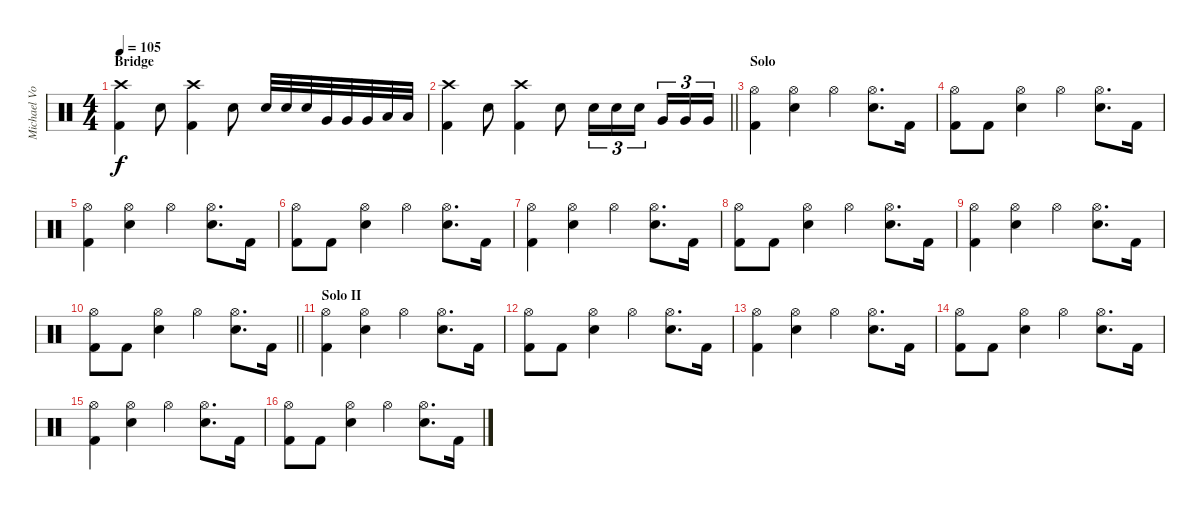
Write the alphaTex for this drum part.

\track ("Michael Von Knorring" "Michael Vo") {instrument percussion}
\staff {score}
\articulation defaults
\ts (4 4)
\section ("" "Bridge")
\tempo 105
\clef neutral
\ks c
("Crash high (hit)" "Kick (hit) 2").4{dy f} "Snare (hit) 2".8 ("Crash high (hit)" "Kick (hit) 2").4 "Snare (hit) 2".8 "Snare (hit) 2".32 "Snare (hit) 2".32 "Snare (hit) 2".32 "Very Low Tom (hit)".32 "Very Low Tom (hit)".32 "Very Low Tom (hit)".32 "Low Floor Tom (hit)".32 "Low Floor Tom (hit)".32 |
\barLineRight lightlight
("Crash high (hit)" "Kick (hit) 2").4 "Snare (hit) 2".8 ("Crash high (hit)" "Kick (hit) 2").4 "Snare (hit) 2".8 "Snare (hit) 2".16{tu (3 2)} "Snare (hit) 2".16{tu (3 2)} "Snare (hit) 2".16{tu (3 2) beam splitsecondary} "Very Low Tom (hit)".16{tu (3 2)} "Very Low Tom (hit)".16{tu (3 2)} "Very Low Tom (hit)".16{tu (3 2)} |
\section ("" "Solo")
("Hi-Hat (open)" "Kick (hit) 2").4 ("Hi-Hat (open)" "Snare (hit) 2").4 "Hi-Hat (open)".4 ("Hi-Hat (open)" "Snare (hit) 2").8{d} "Kick (hit) 2".16 |
("Hi-Hat (open)" "Kick (hit) 2").8 "Kick (hit) 2".8 ("Hi-Hat (open)" "Snare (hit) 2").4 "Hi-Hat (open)".4 ("Hi-Hat (open)" "Snare (hit) 2").8{d} "Kick (hit) 2".16 |
("Hi-Hat (open)" "Kick (hit) 2").4 ("Hi-Hat (open)" "Snare (hit) 2").4 "Hi-Hat (open)".4 ("Hi-Hat (open)" "Snare (hit) 2").8{d} "Kick (hit) 2".16 |
("Hi-Hat (open)" "Kick (hit) 2").8 "Kick (hit) 2".8 ("Hi-Hat (open)" "Snare (hit) 2").4 "Hi-Hat (open)".4 ("Hi-Hat (open)" "Snare (hit) 2").8{d} "Kick (hit) 2".16 |
("Hi-Hat (open)" "Kick (hit) 2").4 ("Hi-Hat (open)" "Snare (hit) 2").4 "Hi-Hat (open)".4 ("Hi-Hat (open)" "Snare (hit) 2").8{d} "Kick (hit) 2".16 |
("Hi-Hat (open)" "Kick (hit) 2").8 "Kick (hit) 2".8 ("Hi-Hat (open)" "Snare (hit) 2").4 "Hi-Hat (open)".4 ("Hi-Hat (open)" "Snare (hit) 2").8{d} "Kick (hit) 2".16 |
("Hi-Hat (open)" "Kick (hit) 2").4 ("Hi-Hat (open)" "Snare (hit) 2").4 "Hi-Hat (open)".4 ("Hi-Hat (open)" "Snare (hit) 2").8{d} "Kick (hit) 2".16 |
\barLineRight lightlight
("Hi-Hat (open)" "Kick (hit) 2").8 "Kick (hit) 2".8 ("Hi-Hat (open)" "Snare (hit) 2").4 "Hi-Hat (open)".4 ("Hi-Hat (open)" "Snare (hit) 2").8{d} "Kick (hit) 2".16 |
\section ("" "Solo II")
("Hi-Hat (open)" "Kick (hit) 2").4 ("Hi-Hat (open)" "Snare (hit) 2").4 "Hi-Hat (open)".4 ("Hi-Hat (open)" "Snare (hit) 2").8{d} "Kick (hit) 2".16 |
("Hi-Hat (open)" "Kick (hit) 2").8 "Kick (hit) 2".8 ("Hi-Hat (open)" "Snare (hit) 2").4 "Hi-Hat (open)".4 ("Hi-Hat (open)" "Snare (hit) 2").8{d} "Kick (hit) 2".16 |
("Hi-Hat (open)" "Kick (hit) 2").4 ("Hi-Hat (open)" "Snare (hit) 2").4 "Hi-Hat (open)".4 ("Hi-Hat (open)" "Snare (hit) 2").8{d} "Kick (hit) 2".16 |
("Hi-Hat (open)" "Kick (hit) 2").8 "Kick (hit) 2".8 ("Hi-Hat (open)" "Snare (hit) 2").4 "Hi-Hat (open)".4 ("Hi-Hat (open)" "Snare (hit) 2").8{d} "Kick (hit) 2".16 |
("Hi-Hat (open)" "Kick (hit) 2").4 ("Hi-Hat (open)" "Snare (hit) 2").4 "Hi-Hat (open)".4 ("Hi-Hat (open)" "Snare (hit) 2").8{d} "Kick (hit) 2".16 |
("Hi-Hat (open)" "Kick (hit) 2").8 "Kick (hit) 2".8 ("Hi-Hat (open)" "Snare (hit) 2").4 "Hi-Hat (open)".4 ("Hi-Hat (open)" "Snare (hit) 2").8{d} "Kick (hit) 2".16
